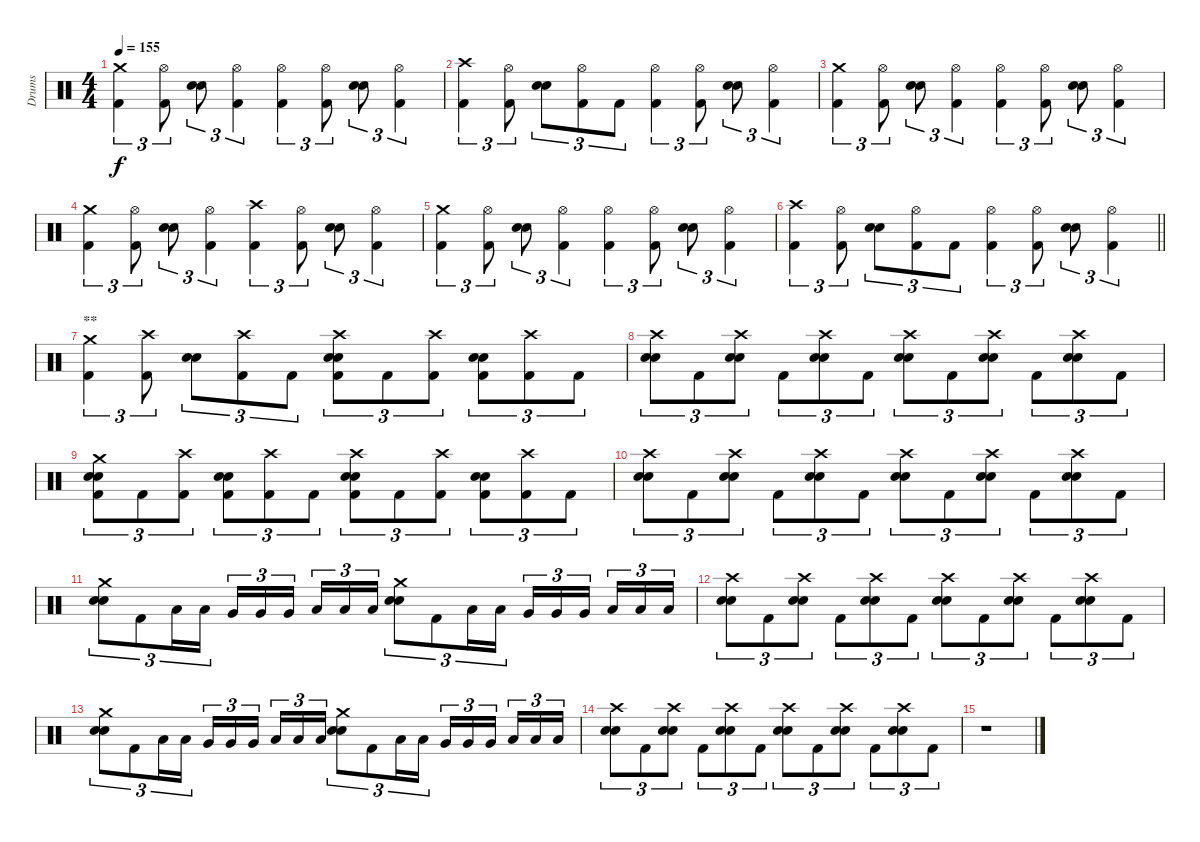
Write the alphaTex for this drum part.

\track ("Drums" "Drums") {instrument percussion}
\staff {score}
\articulation defaults
\ts (4 4)
\tempo 155
\clef neutral
\ks c
("Crash medium (hit)" "Kick (hit) 2").4{tu (3 2) dy f} ("Hi-Hat (open)" "Kick (hit) 2").8{tu (3 2)} ("Electric Snare (hit)" "Electric Snare (hit)").8{tu (3 2)} ("Hi-Hat (open)" "Kick (hit) 2").4{tu (3 2)} ("Hi-Hat (open)" "Kick (hit) 2").4{tu (3 2)} ("Hi-Hat (open)" "Kick (hit) 2").8{tu (3 2)} ("Electric Snare (hit)" "Electric Snare (hit)").8{tu (3 2)} ("Hi-Hat (open)" "Kick (hit) 2").4{tu (3 2)} |
("Crash high (hit)" "Kick (hit) 2").4{tu (3 2)} ("Hi-Hat (open)" "Kick (hit) 2").8{tu (3 2)} ("Electric Snare (hit)" "Electric Snare (hit)").8{tu (3 2)} ("Hi-Hat (open)" "Kick (hit) 2").8{tu (3 2)} "Kick (hit) 2".8{tu (3 2)} ("Hi-Hat (open)" "Kick (hit) 2").4{tu (3 2)} ("Hi-Hat (open)" "Kick (hit) 2").8{tu (3 2)} ("Electric Snare (hit)" "Electric Snare (hit)").8{tu (3 2)} ("Hi-Hat (open)" "Kick (hit) 2").4{tu (3 2)} |
("Crash medium (hit)" "Kick (hit) 2").4{tu (3 2)} ("Hi-Hat (open)" "Kick (hit) 2").8{tu (3 2)} ("Electric Snare (hit)" "Electric Snare (hit)").8{tu (3 2)} ("Hi-Hat (open)" "Kick (hit) 2").4{tu (3 2)} ("Hi-Hat (open)" "Kick (hit) 2").4{tu (3 2)} ("Hi-Hat (open)" "Kick (hit) 2").8{tu (3 2)} ("Electric Snare (hit)" "Electric Snare (hit)").8{tu (3 2)} ("Hi-Hat (open)" "Kick (hit) 2").4{tu (3 2)} |
("Crash medium (hit)" "Kick (hit) 2").4{tu (3 2)} ("Hi-Hat (open)" "Kick (hit) 2").8{tu (3 2)} ("Electric Snare (hit)" "Electric Snare (hit)").8{tu (3 2)} ("Hi-Hat (open)" "Kick (hit) 2").4{tu (3 2)} ("Crash high (hit)" "Kick (hit) 2").4{tu (3 2)} ("Hi-Hat (open)" "Kick (hit) 2").8{tu (3 2)} ("Electric Snare (hit)" "Electric Snare (hit)").8{tu (3 2)} ("Hi-Hat (open)" "Kick (hit) 2").4{tu (3 2)} |
("Crash medium (hit)" "Kick (hit) 2").4{tu (3 2)} ("Hi-Hat (open)" "Kick (hit) 2").8{tu (3 2)} ("Electric Snare (hit)" "Electric Snare (hit)").8{tu (3 2)} ("Hi-Hat (open)" "Kick (hit) 2").4{tu (3 2)} ("Hi-Hat (open)" "Kick (hit) 2").4{tu (3 2)} ("Hi-Hat (open)" "Kick (hit) 2").8{tu (3 2)} ("Electric Snare (hit)" "Electric Snare (hit)").8{tu (3 2)} ("Hi-Hat (open)" "Kick (hit) 2").4{tu (3 2)} |
\barLineRight lightlight
("Crash high (hit)" "Kick (hit) 2").4{tu (3 2)} ("Hi-Hat (open)" "Kick (hit) 2").8{tu (3 2)} ("Electric Snare (hit)" "Electric Snare (hit)").8{tu (3 2)} ("Hi-Hat (open)" "Kick (hit) 2").8{tu (3 2)} "Kick (hit) 2".8{tu (3 2)} ("Hi-Hat (open)" "Kick (hit) 2").4{tu (3 2)} ("Hi-Hat (open)" "Kick (hit) 2").8{tu (3 2)} ("Electric Snare (hit)" "Electric Snare (hit)").8{tu (3 2)} ("Hi-Hat (open)" "Kick (hit) 2").4{tu (3 2)} |
\section ("" "**")
("Crash medium (hit)" "Kick (hit) 2").4{tu (3 2)} ("Crash high (hit)" "Kick (hit) 2").8{tu (3 2)} ("Electric Snare (hit)" "Electric Snare (hit)").8{tu (3 2)} ("Crash high (hit)" "Kick (hit) 2").8{tu (3 2)} "Kick (hit) 2".8{tu (3 2)} ("Crash high (hit)" "Electric Snare (hit)" "Electric Snare (hit)" "Kick (hit) 2").8{tu (3 2)} "Kick (hit) 2".8{tu (3 2)} ("Crash high (hit)" "Kick (hit) 2").8{tu (3 2)} ("Electric Snare (hit)" "Electric Snare (hit)" "Kick (hit) 2").8{tu (3 2)} ("Crash high (hit)" "Kick (hit) 2").8{tu (3 2)} "Kick (hit) 2".8{tu (3 2)} |
("Crash high (hit)" "Electric Snare (hit)" "Electric Snare (hit)").8{tu (3 2)} "Kick (hit) 2".8{tu (3 2)} ("Crash high (hit)" "Electric Snare (hit)" "Electric Snare (hit)").8{tu (3 2)} "Kick (hit) 2".8{tu (3 2)} ("Crash high (hit)" "Electric Snare (hit)" "Electric Snare (hit)").8{tu (3 2)} "Kick (hit) 2".8{tu (3 2)} ("Crash high (hit)" "Electric Snare (hit)" "Electric Snare (hit)").8{tu (3 2)} "Kick (hit) 2".8{tu (3 2)} ("Crash high (hit)" "Electric Snare (hit)" "Electric Snare (hit)").8{tu (3 2)} "Kick (hit) 2".8{tu (3 2)} ("Crash high (hit)" "Electric Snare (hit)" "Electric Snare (hit)").8{tu (3 2)} "Kick (hit) 2".8{tu (3 2)} |
("Crash medium (hit)" "Electric Snare (hit)" "Electric Snare (hit)" "Kick (hit) 2").8{tu (3 2)} "Kick (hit) 2".8{tu (3 2)} ("Crash high (hit)" "Kick (hit) 2").8{tu (3 2)} ("Electric Snare (hit)" "Electric Snare (hit)" "Kick (hit) 2").8{tu (3 2)} ("Crash high (hit)" "Kick (hit) 2").8{tu (3 2)} "Kick (hit) 2".8{tu (3 2)} ("Crash high (hit)" "Electric Snare (hit)" "Electric Snare (hit)" "Kick (hit) 2").8{tu (3 2)} "Kick (hit) 2".8{tu (3 2)} ("Crash high (hit)" "Kick (hit) 2").8{tu (3 2)} ("Electric Snare (hit)" "Electric Snare (hit)" "Kick (hit) 2").8{tu (3 2)} ("Crash high (hit)" "Kick (hit) 2").8{tu (3 2)} "Kick (hit) 2".8{tu (3 2)} |
("Crash high (hit)" "Electric Snare (hit)" "Electric Snare (hit)").8{tu (3 2)} "Kick (hit) 2".8{tu (3 2)} ("Crash high (hit)" "Electric Snare (hit)" "Electric Snare (hit)").8{tu (3 2)} "Kick (hit) 2".8{tu (3 2)} ("Crash high (hit)" "Electric Snare (hit)" "Electric Snare (hit)").8{tu (3 2)} "Kick (hit) 2".8{tu (3 2)} ("Crash high (hit)" "Electric Snare (hit)" "Electric Snare (hit)").8{tu (3 2)} "Kick (hit) 2".8{tu (3 2)} ("Crash high (hit)" "Electric Snare (hit)" "Electric Snare (hit)").8{tu (3 2)} "Kick (hit) 2".8{tu (3 2)} ("Crash high (hit)" "Electric Snare (hit)" "Electric Snare (hit)").8{tu (3 2)} "Kick (hit) 2".8{tu (3 2)} |
("Crash medium (hit)" "Electric Snare (hit)" "Electric Snare (hit)").8{tu (3 2)} "Kick (hit) 2".8{tu (3 2)} "Low Tom (hit)".16{tu (3 2)} "Low Tom (hit)".16{tu (3 2)} "Very Low Tom (hit)".16{tu (3 2)} "Very Low Tom (hit)".16{tu (3 2)} "Very Low Tom (hit)".16{tu (3 2) beam splitsecondary} "Low Floor Tom (hit)".16{tu (3 2)} "Low Floor Tom (hit)".16{tu (3 2)} "Low Floor Tom (hit)".16{tu (3 2)} ("Crash medium (hit)" "Electric Snare (hit)" "Electric Snare (hit)").8{tu (3 2)} "Kick (hit) 2".8{tu (3 2)} "Low Tom (hit)".16{tu (3 2)} "Low Tom (hit)".16{tu (3 2)} "Very Low Tom (hit)".16{tu (3 2)} "Very Low Tom (hit)".16{tu (3 2)} "Very Low Tom (hit)".16{tu (3 2) beam splitsecondary} "Low Floor Tom (hit)".16{tu (3 2)} "Low Floor Tom (hit)".16{tu (3 2)} "Low Floor Tom (hit)".16{tu (3 2)} |
("Crash high (hit)" "Electric Snare (hit)" "Electric Snare (hit)").8{tu (3 2)} "Kick (hit) 2".8{tu (3 2)} ("Crash high (hit)" "Electric Snare (hit)" "Electric Snare (hit)").8{tu (3 2)} "Kick (hit) 2".8{tu (3 2)} ("Crash high (hit)" "Electric Snare (hit)" "Electric Snare (hit)").8{tu (3 2)} "Kick (hit) 2".8{tu (3 2)} ("Crash high (hit)" "Electric Snare (hit)" "Electric Snare (hit)").8{tu (3 2)} "Kick (hit) 2".8{tu (3 2)} ("Crash high (hit)" "Electric Snare (hit)" "Electric Snare (hit)").8{tu (3 2)} "Kick (hit) 2".8{tu (3 2)} ("Crash high (hit)" "Electric Snare (hit)" "Electric Snare (hit)").8{tu (3 2)} "Kick (hit) 2".8{tu (3 2)} |
("Crash medium (hit)" "Electric Snare (hit)" "Electric Snare (hit)").8{tu (3 2)} "Kick (hit) 2".8{tu (3 2)} "Low Tom (hit)".16{tu (3 2)} "Low Tom (hit)".16{tu (3 2)} "Very Low Tom (hit)".16{tu (3 2)} "Very Low Tom (hit)".16{tu (3 2)} "Very Low Tom (hit)".16{tu (3 2) beam splitsecondary} "Low Floor Tom (hit)".16{tu (3 2)} "Low Floor Tom (hit)".16{tu (3 2)} "Low Floor Tom (hit)".16{tu (3 2)} ("Crash medium (hit)" "Electric Snare (hit)" "Electric Snare (hit)").8{tu (3 2)} "Kick (hit) 2".8{tu (3 2)} "Low Tom (hit)".16{tu (3 2)} "Low Tom (hit)".16{tu (3 2)} "Very Low Tom (hit)".16{tu (3 2)} "Very Low Tom (hit)".16{tu (3 2)} "Very Low Tom (hit)".16{tu (3 2) beam splitsecondary} "Low Floor Tom (hit)".16{tu (3 2)} "Low Floor Tom (hit)".16{tu (3 2)} "Low Floor Tom (hit)".16{tu (3 2)} |
("Crash high (hit)" "Electric Snare (hit)" "Electric Snare (hit)").8{tu (3 2)} "Kick (hit) 2".8{tu (3 2)} ("Crash high (hit)" "Electric Snare (hit)" "Electric Snare (hit)").8{tu (3 2)} "Kick (hit) 2".8{tu (3 2)} ("Crash high (hit)" "Electric Snare (hit)" "Electric Snare (hit)").8{tu (3 2)} "Kick (hit) 2".8{tu (3 2)} ("Crash high (hit)" "Electric Snare (hit)" "Electric Snare (hit)").8{tu (3 2)} "Kick (hit) 2".8{tu (3 2)} ("Crash high (hit)" "Electric Snare (hit)" "Electric Snare (hit)").8{tu (3 2)} "Kick (hit) 2".8{tu (3 2)} ("Crash high (hit)" "Electric Snare (hit)" "Electric Snare (hit)").8{tu (3 2)} "Kick (hit) 2".8{tu (3 2)} |
r.1
